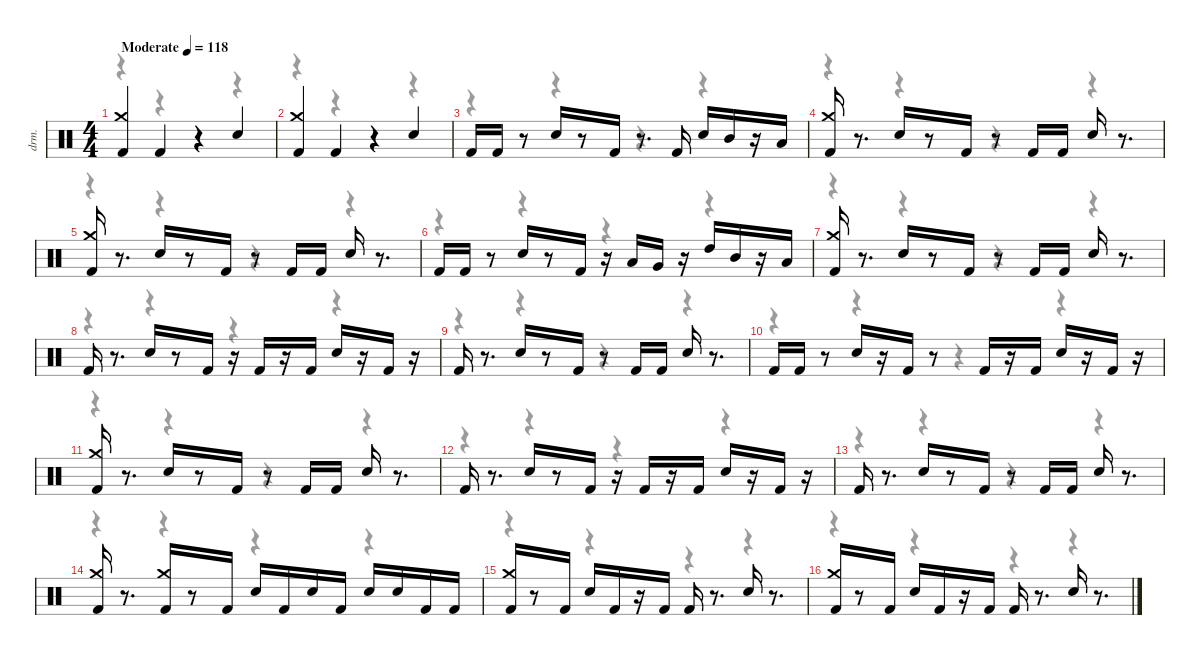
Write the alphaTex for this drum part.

\defaultSystemsLayout 4
\hideDynamics
\bracketExtendMode nobrackets
\track ("Drums" "drm.") {instrument percussion}
\staff {score}
\articulation defaults
\voice
\ts (4 4)
\beaming (8 2 2 2 2)
\tempo (118 "Moderate")
\clef neutral
\ks c
("Crash medium (hit)" "Kick (hit) 2").4{dy f} "Kick (hit) 2".4 r.4 "Snare (hit) 2".4 |
("Crash medium (hit)" "Kick (hit) 2").4 "Kick (hit) 2".4 r.4 "Snare (hit) 2".4 |
"Kick (hit) 2".16 "Kick (hit) 2".16 r.8 "Snare (hit) 2".16 r.8 "Kick (hit) 2".16 r.8{d} "Kick (hit) 2".16 "Snare (hit) 2".16 "Mid Tom (hit)".16 r.16 "Low Tom (hit)".16 |
("Crash medium (hit)" "Kick (hit) 2").16 r.8{d} "Snare (hit) 2".16 r.8 "Kick (hit) 2".16 r.8 "Kick (hit) 2".16 "Kick (hit) 2".16 "Snare (hit) 2".16 r.8{d} |
("Crash medium (hit)" "Kick (hit) 2").16 r.8{d} "Snare (hit) 2".16 r.8 "Kick (hit) 2".16 r.8 "Kick (hit) 2".16 "Kick (hit) 2".16 "Snare (hit) 2".16 r.8{d} |
"Kick (hit) 2".16 "Kick (hit) 2".16 r.8 "Snare (hit) 2".16 r.8 "Kick (hit) 2".16 r.16 "Low Tom (hit)".16 "Very Low Tom (hit)".16 r.16 "High Tom (hit)".16 "Mid Tom (hit)".16 r.16 "Low Tom (hit)".16 |
("Crash medium (hit)" "Kick (hit) 2").16 r.8{d} "Snare (hit) 2".16 r.8 "Kick (hit) 2".16 r.8 "Kick (hit) 2".16 "Kick (hit) 2".16 "Snare (hit) 2".16 r.8{d} |
"Kick (hit) 2".16 r.8{d} "Snare (hit) 2".16 r.8 "Kick (hit) 2".16 r.16 "Kick (hit) 2".16 r.16 "Kick (hit) 2".16 "Snare (hit) 2".16 r.16 "Kick (hit) 2".16 r.16 |
"Kick (hit) 2".16 r.8{d} "Snare (hit) 2".16 r.8 "Kick (hit) 2".16 r.8 "Kick (hit) 2".16 "Kick (hit) 2".16 "Snare (hit) 2".16 r.8{d} |
"Kick (hit) 2".16 "Kick (hit) 2".16 r.8 "Snare (hit) 2".16 r.16 "Kick (hit) 2".16 r.8 "Kick (hit) 2".16 r.16 "Kick (hit) 2".16 "Snare (hit) 2".16 r.16 "Kick (hit) 2".16 r.16 |
("Crash medium (hit)" "Kick (hit) 2").16 r.8{d} "Snare (hit) 2".16 r.8 "Kick (hit) 2".16 r.8 "Kick (hit) 2".16 "Kick (hit) 2".16 "Snare (hit) 2".16 r.8{d} |
"Kick (hit) 2".16 r.8{d} "Snare (hit) 2".16 r.8 "Kick (hit) 2".16 r.16 "Kick (hit) 2".16 r.16 "Kick (hit) 2".16 "Snare (hit) 2".16 r.16 "Kick (hit) 2".16 r.16 |
"Kick (hit) 2".16 r.8{d} "Snare (hit) 2".16 r.8 "Kick (hit) 2".16 r.8 "Kick (hit) 2".16 "Kick (hit) 2".16 "Snare (hit) 2".16 r.8{d} |
("Crash medium (hit)" "Kick (hit) 2").16 r.8{d} ("Crash medium (hit)" "Kick (hit) 2").16 r.8 "Kick (hit) 2".16 "Snare (hit) 2".16 "Kick (hit) 2".16 "Snare (hit) 2".16 "Kick (hit) 2".16 "Snare (hit) 2".16 "Snare (hit) 2".16 "Kick (hit) 2".16 "Kick (hit) 2".16 |
("Kick (hit) 2" "Crash medium (hit)").16 r.8 "Kick (hit) 2".16 "Snare (hit) 2".16 "Kick (hit) 2".16 r.16 "Kick (hit) 2".16 "Kick (hit) 2".16 r.8{d} "Snare (hit) 2".16 r.8{d} |
("Kick (hit) 2" "Crash medium (hit)").16 r.8 "Kick (hit) 2".16 "Snare (hit) 2".16 "Kick (hit) 2".16 r.16 "Kick (hit) 2".16 "Kick (hit) 2".16 r.8{d} "Snare (hit) 2".16 r.8{d}
\voice
\clef neutral
\ottava regular
\simile none
\ks c
r.4{dy mf} r.4 r.4 r.4 |
r.4 r.4 r.4 r.4 |
r.4 r.4 r.4 r.4 |
r.4 r.4 r.4 r.4 |
r.4 r.4 r.4 r.4 |
r.4 r.4 r.4 r.4 |
r.4 r.4 r.4 r.4 |
r.4 r.4 r.4 r.4 |
r.4 r.4 r.4 r.4 |
r.4 r.4 r.4 r.4 |
r.4 r.4 r.4 r.4 |
r.4 r.4 r.4 r.4 |
r.4 r.4 r.4 r.4 |
r.4 r.4 r.4 r.4 |
r.4 r.4 r.4 r.4 |
r.4 r.4 r.4 r.4
